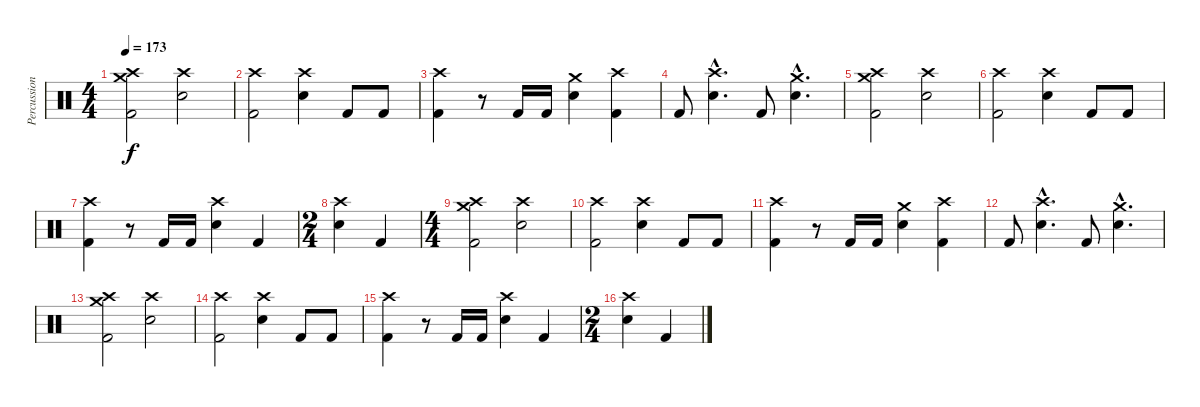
\track ("Percussions" "Percussion") {instrument percussion}
\staff {score}
\articulation defaults
\ts (4 4)
\tempo 173
\clef neutral
\ks c
("Crash medium (hit)" "Crash high (hit)" "Kick (hit) 2").2{dy f} ("Crash high (hit)" "Electric Snare (hit)").2 |
("Crash high (hit)" "Kick (hit) 2").2 ("Crash high (hit)" "Electric Snare (hit)").4 "Kick (hit) 2".8 "Kick (hit) 2".8 |
("Crash high (hit)" "Kick (hit) 2").4 r.8 "Kick (hit) 2".16 "Kick (hit) 2".16 ("Crash medium (hit)" "Electric Snare (hit)").4 ("Crash high (hit)" "Kick (hit) 2").4 |
"Kick (hit) 2".8 ("Crash high (hit)"{hac} "Electric Snare (hit)"{hac}).4{d} "Kick (hit) 2".8 ("Crash medium (hit)"{hac} "Electric Snare (hit)"{hac}).4{d} |
("Crash medium (hit)" "Crash high (hit)" "Kick (hit) 2").2 ("Crash high (hit)" "Electric Snare (hit)").2 |
("Crash high (hit)" "Kick (hit) 2").2 ("Crash high (hit)" "Electric Snare (hit)").4 "Kick (hit) 2".8 "Kick (hit) 2".8 |
("Crash high (hit)" "Kick (hit) 2").4 r.8 "Kick (hit) 2".16 "Kick (hit) 2".16 ("Crash high (hit)" "Electric Snare (hit)").4 "Kick (hit) 2".4 |
\ts (2 4)
("Crash high (hit)" "Electric Snare (hit)").4 "Kick (hit) 2".4 |
\ts (4 4)
("Crash medium (hit)" "Crash high (hit)" "Kick (hit) 2").2 ("Crash high (hit)" "Electric Snare (hit)").2 |
("Crash high (hit)" "Kick (hit) 2").2 ("Crash high (hit)" "Electric Snare (hit)").4 "Kick (hit) 2".8 "Kick (hit) 2".8 |
("Crash high (hit)" "Kick (hit) 2").4 r.8 "Kick (hit) 2".16 "Kick (hit) 2".16 ("Crash medium (hit)" "Electric Snare (hit)").4 ("Crash high (hit)" "Kick (hit) 2").4 |
"Kick (hit) 2".8 ("Crash high (hit)"{hac} "Electric Snare (hit)"{hac}).4{d} "Kick (hit) 2".8 ("Crash medium (hit)"{hac} "Electric Snare (hit)"{hac}).4{d} |
("Crash medium (hit)" "Crash high (hit)" "Kick (hit) 2").2 ("Crash high (hit)" "Electric Snare (hit)").2 |
("Crash high (hit)" "Kick (hit) 2").2 ("Crash high (hit)" "Electric Snare (hit)").4 "Kick (hit) 2".8 "Kick (hit) 2".8 |
("Crash high (hit)" "Kick (hit) 2").4 r.8 "Kick (hit) 2".16 "Kick (hit) 2".16 ("Crash high (hit)" "Electric Snare (hit)").4 "Kick (hit) 2".4 |
\ts (2 4)
("Crash high (hit)" "Electric Snare (hit)").4 "Kick (hit) 2".4
